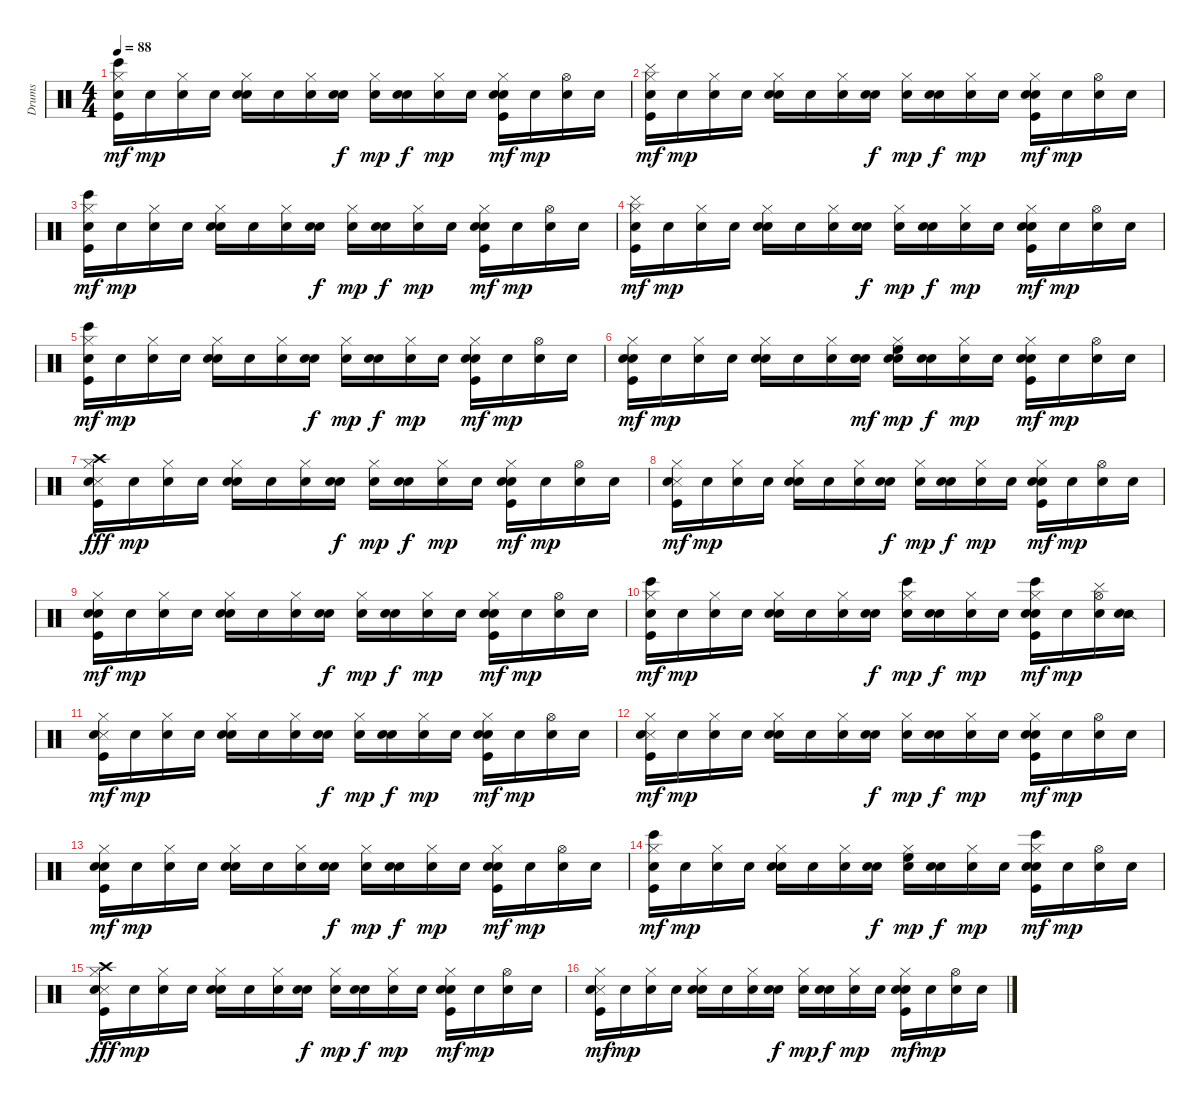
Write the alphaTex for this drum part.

\track ("Drums" "Drums") {instrument percussion}
\staff {score}
\articulation defaults
\ts (4 4)
\tempo 88
\clef neutral
\ks c
("Bongo High (hit)" "Snare (hit) 2" "Hi-Hat (closed)" "Kick (hit)").16{dy mf} "Snare (hit) 2".16{dy mp} ("Snare (hit) 2" "Hi-Hat (closed)").16 "Snare (hit) 2".16 ("Snare (hit) 2" "Hand Clap (hit)" "Hi-Hat (closed)").16 "Snare (hit) 2".16 ("Snare (hit) 2" "Hi-Hat (closed)").16 ("Snare (hit) 2" "Hand Clap (hit)").16{dy f} ("Snare (hit) 2" "Hi-Hat (closed)").16{dy mp} ("Snare (hit) 2" "Hand Clap (hit)").16{dy f} ("Snare (hit) 2" "Hi-Hat (closed)").16{dy mp} "Snare (hit) 2".16 ("Snare (hit) 2" "Hand Clap (hit)" "Hi-Hat (closed)" "Kick (hit)").16{dy mf} "Snare (hit) 2".16{dy mp} ("Snare (hit) 2" "Hi-Hat (open)").16 "Snare (hit) 2".16 |
("Cymbal (hit)" "Snare (hit) 2" "Hi-Hat (closed)" "Kick (hit)").16{dy mf} "Snare (hit) 2".16{dy mp} ("Snare (hit) 2" "Hi-Hat (closed)").16 "Snare (hit) 2".16 ("Snare (hit) 2" "Hand Clap (hit)" "Hi-Hat (closed)").16 "Snare (hit) 2".16 ("Snare (hit) 2" "Hi-Hat (closed)").16 ("Snare (hit) 2" "Hand Clap (hit)").16{dy f} ("Snare (hit) 2" "Hi-Hat (closed)").16{dy mp} ("Snare (hit) 2" "Hand Clap (hit)").16{dy f} ("Snare (hit) 2" "Hi-Hat (closed)").16{dy mp} "Snare (hit) 2".16 ("Snare (hit) 2" "Hand Clap (hit)" "Hi-Hat (closed)" "Kick (hit)").16{dy mf} "Snare (hit) 2".16{dy mp} ("Snare (hit) 2" "Hi-Hat (open)").16 "Snare (hit) 2".16 |
("Bongo High (hit)" "Snare (hit) 2" "Hi-Hat (closed)" "Kick (hit)").16{dy mf} "Snare (hit) 2".16{dy mp} ("Snare (hit) 2" "Hi-Hat (closed)").16 "Snare (hit) 2".16 ("Snare (hit) 2" "Hand Clap (hit)" "Hi-Hat (closed)").16 "Snare (hit) 2".16 ("Snare (hit) 2" "Hi-Hat (closed)").16 ("Snare (hit) 2" "Hand Clap (hit)").16{dy f} ("Snare (hit) 2" "Hi-Hat (closed)").16{dy mp} ("Snare (hit) 2" "Hand Clap (hit)").16{dy f} ("Snare (hit) 2" "Hi-Hat (closed)").16{dy mp} "Snare (hit) 2".16 ("Snare (hit) 2" "Hand Clap (hit)" "Hi-Hat (closed)" "Kick (hit)").16{dy mf} "Snare (hit) 2".16{dy mp} ("Snare (hit) 2" "Hi-Hat (open)").16 "Snare (hit) 2".16 |
("Cymbal (hit)" "Snare (hit) 2" "Hi-Hat (closed)" "Kick (hit)").16{dy mf} "Snare (hit) 2".16{dy mp} ("Snare (hit) 2" "Hi-Hat (closed)").16 "Snare (hit) 2".16 ("Snare (hit) 2" "Hand Clap (hit)" "Hi-Hat (closed)").16 "Snare (hit) 2".16 ("Snare (hit) 2" "Hi-Hat (closed)").16 ("Snare (hit) 2" "Hand Clap (hit)").16{dy f} ("Snare (hit) 2" "Hi-Hat (closed)").16{dy mp} ("Snare (hit) 2" "Hand Clap (hit)").16{dy f} ("Snare (hit) 2" "Hi-Hat (closed)").16{dy mp} "Snare (hit) 2".16 ("Snare (hit) 2" "Hand Clap (hit)" "Hi-Hat (closed)" "Kick (hit)").16{dy mf} "Snare (hit) 2".16{dy mp} ("Snare (hit) 2" "Hi-Hat (open)").16 "Snare (hit) 2".16 |
("Bongo High (hit)" "Snare (hit) 2" "Hi-Hat (closed)" "Kick (hit)").16{dy mf} "Snare (hit) 2".16{dy mp} ("Snare (hit) 2" "Hi-Hat (closed)").16 "Snare (hit) 2".16 ("Snare (hit) 2" "Hand Clap (hit)" "Hi-Hat (closed)").16 "Snare (hit) 2".16 ("Snare (hit) 2" "Hi-Hat (closed)").16 ("Snare (hit) 2" "Hand Clap (hit)").16{dy f} ("Snare (hit) 2" "Hi-Hat (closed)").16{dy mp} ("Snare (hit) 2" "Hand Clap (hit)").16{dy f} ("Snare (hit) 2" "Hi-Hat (closed)").16{dy mp} "Snare (hit) 2".16 ("Snare (hit) 2" "Hand Clap (hit)" "Hi-Hat (closed)" "Kick (hit)").16{dy mf} "Snare (hit) 2".16{dy mp} ("Snare (hit) 2" "Hi-Hat (open)").16 "Snare (hit) 2".16 |
("Snare (hit)" "Snare (hit) 2" "Hi-Hat (closed)" "Kick (hit)").16{dy mf} "Snare (hit) 2".16{dy mp} ("Snare (hit) 2" "Hi-Hat (closed)").16 "Snare (hit) 2".16 ("Snare (hit) 2" "Hand Clap (hit)" "Hi-Hat (closed)").16 "Snare (hit) 2".16 ("Snare (hit) 2" "Hi-Hat (closed)").16 ("Snare (hit)" "Snare (hit) 2" "Hand Clap (hit)").16{dy mf} ("Snare (hit)" "Snare (hit) 2" "High Floor Tom (hit)" "Hi-Hat (closed)").16{dy mp} ("Snare (hit) 2" "Hand Clap (hit)").16{dy f} ("Snare (hit) 2" "Hi-Hat (closed)").16{dy mp} "Snare (hit) 2".16 ("Snare (hit) 2" "Hand Clap (hit)" "Hi-Hat (closed)" "Kick (hit)").16{dy mf} "Snare (hit) 2".16{dy mp} ("Snare (hit) 2" "Hi-Hat (open)").16 "Snare (hit) 2".16 |
("Metronome (hit)" "Snare (hit) 2" "Hi-Hat (closed)" "Kick (hit)" "Crash high (hit)").16{dy fff} "Snare (hit) 2".16{dy mp} ("Snare (hit) 2" "Hi-Hat (closed)").16 "Snare (hit) 2".16 ("Snare (hit) 2" "Hand Clap (hit)" "Hi-Hat (closed)").16 "Snare (hit) 2".16 ("Snare (hit) 2" "Hi-Hat (closed)").16 ("Snare (hit) 2" "Hand Clap (hit)").16{dy f} ("Snare (hit) 2" "Hi-Hat (closed)").16{dy mp} ("Snare (hit) 2" "Hand Clap (hit)").16{dy f} ("Snare (hit) 2" "Hi-Hat (closed)").16{dy mp} "Snare (hit) 2".16 ("Snare (hit) 2" "Hand Clap (hit)" "Hi-Hat (closed)" "Kick (hit)").16{dy mf} "Snare (hit) 2".16{dy mp} ("Snare (hit) 2" "Hi-Hat (open)").16 "Snare (hit) 2".16 |
("Snare (side stick) 3" "Snare (hit) 2" "Hi-Hat (closed)" "Kick (hit)").16{dy mf} "Snare (hit) 2".16{dy mp} ("Snare (hit) 2" "Hi-Hat (closed)").16 "Snare (hit) 2".16 ("Snare (hit) 2" "Hand Clap (hit)" "Hi-Hat (closed)").16 "Snare (hit) 2".16 ("Snare (hit) 2" "Hi-Hat (closed)").16 ("Snare (hit) 2" "Hand Clap (hit)").16{dy f} ("Snare (hit) 2" "Hi-Hat (closed)").16{dy mp} ("Snare (hit) 2" "Hand Clap (hit)").16{dy f} ("Snare (hit) 2" "Hi-Hat (closed)").16{dy mp} "Snare (hit) 2".16 ("Snare (hit) 2" "Hand Clap (hit)" "Hi-Hat (closed)" "Kick (hit)").16{dy mf} "Snare (hit) 2".16{dy mp} ("Snare (hit) 2" "Hi-Hat (open)").16 "Snare (hit) 2".16 |
("Snare (hit) 2" "Snare (hit) 2" "Hi-Hat (closed)" "Kick (hit)").16{dy mf} "Snare (hit) 2".16{dy mp} ("Snare (hit) 2" "Hi-Hat (closed)").16 "Snare (hit) 2".16 ("Snare (hit) 2" "Hand Clap (hit)" "Hi-Hat (closed)").16 "Snare (hit) 2".16 ("Snare (hit) 2" "Hi-Hat (closed)").16 ("Snare (hit) 2" "Hand Clap (hit)").16{dy f} ("Snare (hit) 2" "Hi-Hat (closed)").16{dy mp} ("Snare (hit) 2" "Hand Clap (hit)").16{dy f} ("Snare (hit) 2" "Hi-Hat (closed)").16{dy mp} "Snare (hit) 2".16 ("Snare (hit) 2" "Hand Clap (hit)" "Hi-Hat (closed)" "Kick (hit)").16{dy mf} "Snare (hit) 2".16{dy mp} ("Snare (hit) 2" "Hi-Hat (open)").16 "Snare (hit) 2".16 |
("Bongo High (hit)" "Snare (hit) 2" "Hi-Hat (closed)" "Kick (hit)").16{dy mf} "Snare (hit) 2".16{dy mp} ("Snare (hit) 2" "Hi-Hat (closed)").16 "Snare (hit) 2".16 ("Snare (hit) 2" "Hand Clap (hit)" "Hi-Hat (closed)").16 "Snare (hit) 2".16 ("Snare (hit) 2" "Hi-Hat (closed)").16 ("Snare (hit) 2" "Hand Clap (hit)").16{dy f} ("Bongo High (hit)" "Snare (hit) 2" "Hi-Hat (closed)").16{dy mp} ("Snare (hit) 2" "Hand Clap (hit)").16{dy f} ("Snare (hit) 2" "Hi-Hat (closed)").16{dy mp} "Snare (hit) 2".16 ("Bongo High (hit)" "Snare (hit) 2" "Hand Clap (hit)" "Hi-Hat (closed)" "Kick (hit)").16{dy mf} "Snare (hit) 2".16{dy mp} ("Cymbal (hit)" "Snare (hit) 2" "Hi-Hat (open)").16 ("Snare (side stick) 2" "Snare (hit) 2").16 |
("Metronome (hit)" "Snare (hit) 2" "Hi-Hat (closed)" "Kick (hit)").16{dy mf} "Snare (hit) 2".16{dy mp} ("Snare (hit) 2" "Hi-Hat (closed)").16 "Snare (hit) 2".16 ("Snare (hit) 2" "Hand Clap (hit)" "Hi-Hat (closed)").16 "Snare (hit) 2".16 ("Snare (hit) 2" "Hi-Hat (closed)").16 ("Snare (hit) 2" "Hand Clap (hit)").16{dy f} ("Snare (hit) 2" "Hi-Hat (closed)").16{dy mp} ("Snare (hit) 2" "Hand Clap (hit)").16{dy f} ("Snare (hit) 2" "Hi-Hat (closed)").16{dy mp} "Snare (hit) 2".16 ("Snare (hit) 2" "Hand Clap (hit)" "Hi-Hat (closed)" "Kick (hit)").16{dy mf} "Snare (hit) 2".16{dy mp} ("Snare (hit) 2" "Hi-Hat (open)").16 "Snare (hit) 2".16 |
("Snare (side stick) 3" "Snare (hit) 2" "Hi-Hat (closed)" "Kick (hit)").16{dy mf} "Snare (hit) 2".16{dy mp} ("Snare (hit) 2" "Hi-Hat (closed)").16 "Snare (hit) 2".16 ("Snare (hit) 2" "Hand Clap (hit)" "Hi-Hat (closed)").16 "Snare (hit) 2".16 ("Snare (hit) 2" "Hi-Hat (closed)").16 ("Snare (hit) 2" "Hand Clap (hit)").16{dy f} ("Snare (hit) 2" "Hi-Hat (closed)").16{dy mp} ("Snare (hit) 2" "Hand Clap (hit)").16{dy f} ("Snare (hit) 2" "Hi-Hat (closed)").16{dy mp} "Snare (hit) 2".16 ("Snare (hit) 2" "Hand Clap (hit)" "Hi-Hat (closed)" "Kick (hit)").16{dy mf} "Snare (hit) 2".16{dy mp} ("Snare (hit) 2" "Hi-Hat (open)").16 "Snare (hit) 2".16 |
("Snare (hit) 2" "Snare (hit) 2" "Hi-Hat (closed)" "Kick (hit)").16{dy mf} "Snare (hit) 2".16{dy mp} ("Snare (hit) 2" "Hi-Hat (closed)").16 "Snare (hit) 2".16 ("Snare (hit) 2" "Hand Clap (hit)" "Hi-Hat (closed)").16 "Snare (hit) 2".16 ("Snare (hit) 2" "Hi-Hat (closed)").16 ("Snare (hit) 2" "Hand Clap (hit)").16{dy f} ("Snare (hit) 2" "Hi-Hat (closed)").16{dy mp} ("Snare (hit) 2" "Hand Clap (hit)").16{dy f} ("Snare (hit) 2" "Hi-Hat (closed)").16{dy mp} "Snare (hit) 2".16 ("Snare (hit) 2" "Hand Clap (hit)" "Hi-Hat (closed)" "Kick (hit)").16{dy mf} "Snare (hit) 2".16{dy mp} ("Snare (hit) 2" "Hi-Hat (open)").16 "Snare (hit) 2".16 |
("Bongo High (hit)" "Snare (hit) 2" "Hi-Hat (closed)" "Kick (hit)").16{dy mf} "Snare (hit) 2".16{dy mp} ("Snare (hit) 2" "Hi-Hat (closed)").16 "Snare (hit) 2".16 ("Snare (hit) 2" "Hand Clap (hit)" "Hi-Hat (closed)").16 "Snare (hit) 2".16 ("Snare (hit) 2" "Hi-Hat (closed)").16 ("Snare (hit) 2" "Hand Clap (hit)").16{dy f} ("Snare (hit) 2" "High Floor Tom (hit)" "Hi-Hat (closed)").16{dy mp} ("Snare (hit) 2" "Hand Clap (hit)").16{dy f} ("Snare (hit) 2" "Hi-Hat (closed)").16{dy mp} "Snare (hit) 2".16 ("Bongo High (hit)" "Snare (hit) 2" "Hand Clap (hit)" "Hi-Hat (closed)" "Kick (hit)").16{dy mf} "Snare (hit) 2".16{dy mp} ("Snare (hit) 2" "Hi-Hat (open)").16 "Snare (hit) 2".16 |
("Metronome (hit)" "Snare (hit) 2" "Hi-Hat (closed)" "Kick (hit)" "Crash high (hit)").16{dy fff} "Snare (hit) 2".16{dy mp} ("Snare (hit) 2" "Hi-Hat (closed)").16 "Snare (hit) 2".16 ("Snare (hit) 2" "Hand Clap (hit)" "Hi-Hat (closed)").16 "Snare (hit) 2".16 ("Snare (hit) 2" "Hi-Hat (closed)").16 ("Snare (hit) 2" "Hand Clap (hit)").16{dy f} ("Snare (hit) 2" "Hi-Hat (closed)").16{dy mp} ("Snare (hit) 2" "Hand Clap (hit)").16{dy f} ("Snare (hit) 2" "Hi-Hat (closed)").16{dy mp} "Snare (hit) 2".16 ("Snare (hit) 2" "Hand Clap (hit)" "Hi-Hat (closed)" "Kick (hit)").16{dy mf} "Snare (hit) 2".16{dy mp} ("Snare (hit) 2" "Hi-Hat (open)").16 "Snare (hit) 2".16 |
("Snare (side stick) 3" "Snare (hit) 2" "Hi-Hat (closed)" "Kick (hit)").16{dy mf} "Snare (hit) 2".16{dy mp} ("Snare (hit) 2" "Hi-Hat (closed)").16 "Snare (hit) 2".16 ("Snare (hit) 2" "Hand Clap (hit)" "Hi-Hat (closed)").16 "Snare (hit) 2".16 ("Snare (hit) 2" "Hi-Hat (closed)").16 ("Snare (hit) 2" "Hand Clap (hit)").16{dy f} ("Snare (hit) 2" "Hi-Hat (closed)").16{dy mp} ("Snare (hit) 2" "Hand Clap (hit)").16{dy f} ("Snare (hit) 2" "Hi-Hat (closed)").16{dy mp} "Snare (hit) 2".16 ("Snare (hit) 2" "Hand Clap (hit)" "Hi-Hat (closed)" "Kick (hit)").16{dy mf} "Snare (hit) 2".16{dy mp} ("Snare (hit) 2" "Hi-Hat (open)").16 "Snare (hit) 2".16
